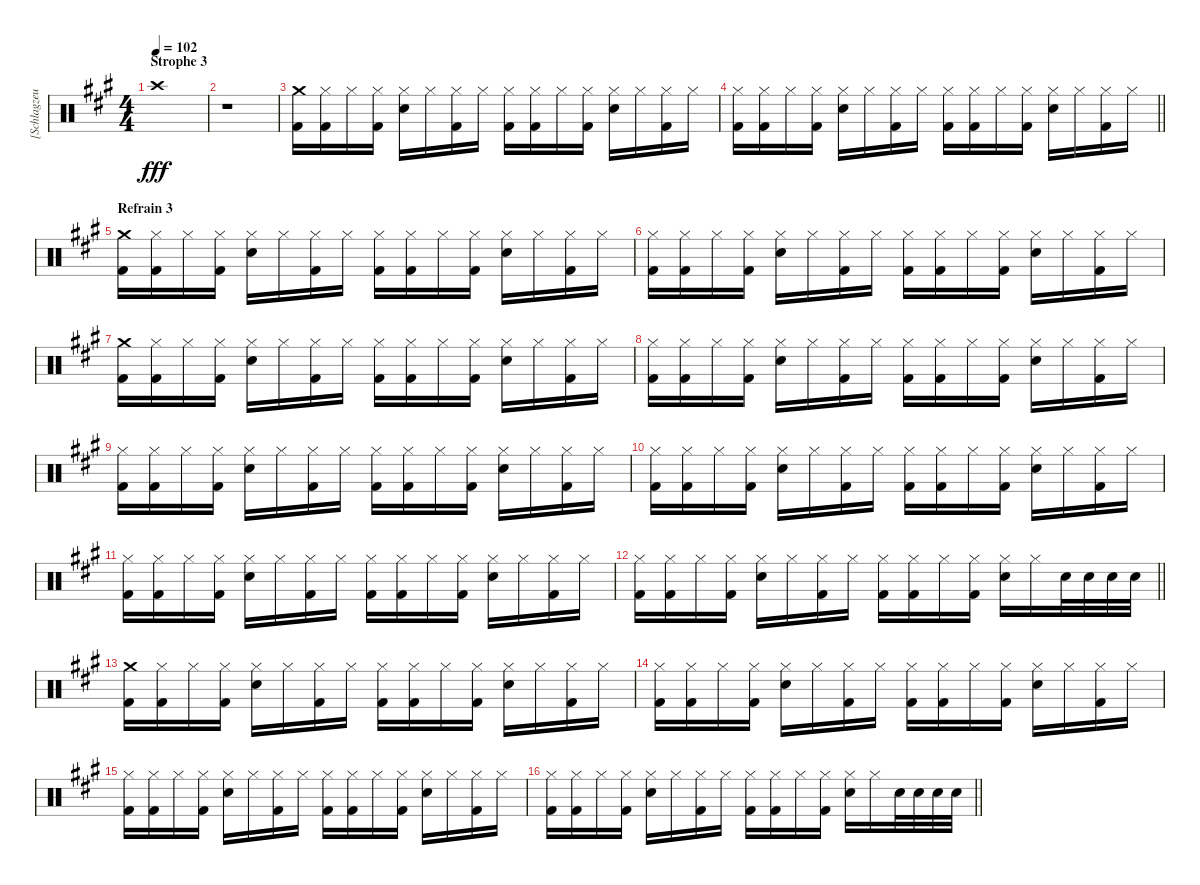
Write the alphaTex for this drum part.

\track ("[Schlagzeug]" "[Schlagzeu") {instrument percussion}
\staff {score}
\articulation defaults
\ts (4 4)
\section ("" "Strophe 3")
\tempo 102
\clef neutral
\ks f#minor "Crash high (hit)".1{dy fff}
|
r.1 |
("Kick (hit) 2" "Crash medium (hit)").16 ("Kick (hit) 2" "Hi-Hat (closed)").16 "Hi-Hat (closed)".16 ("Kick (hit) 2" "Hi-Hat (closed)").16 ("Electric Snare (hit)" "Hi-Hat (closed)").16 "Hi-Hat (closed)".16 ("Kick (hit) 2" "Hi-Hat (closed)").16 "Hi-Hat (closed)".16 ("Kick (hit) 2" "Hi-Hat (closed)").16 ("Kick (hit) 2" "Hi-Hat (closed)").16 "Hi-Hat (closed)".16 ("Kick (hit) 2" "Hi-Hat (closed)").16 ("Electric Snare (hit)" "Hi-Hat (closed)").16 "Hi-Hat (closed)".16 ("Kick (hit) 2" "Hi-Hat (closed)").16 "Hi-Hat (closed)".16 |
\barLineRight lightlight
("Kick (hit) 2" "Hi-Hat (closed)").16 ("Kick (hit) 2" "Hi-Hat (closed)").16 "Hi-Hat (closed)".16 ("Kick (hit) 2" "Hi-Hat (closed)").16 ("Electric Snare (hit)" "Hi-Hat (closed)").16 "Hi-Hat (closed)".16 ("Kick (hit) 2" "Hi-Hat (closed)").16 "Hi-Hat (closed)".16 ("Kick (hit) 2" "Hi-Hat (closed)").16 ("Kick (hit) 2" "Hi-Hat (closed)").16 "Hi-Hat (closed)".16 ("Kick (hit) 2" "Hi-Hat (closed)").16 ("Electric Snare (hit)" "Hi-Hat (closed)").16 "Hi-Hat (closed)".16 ("Kick (hit) 2" "Hi-Hat (closed)").16 "Hi-Hat (closed)".16 |
\section ("" "Refrain 3")
("Kick (hit) 2" "Crash medium (hit)").16 ("Kick (hit) 2" "Hi-Hat (closed)").16 "Hi-Hat (closed)".16 ("Kick (hit) 2" "Hi-Hat (closed)").16 ("Electric Snare (hit)" "Hi-Hat (closed)").16 "Hi-Hat (closed)".16 ("Kick (hit) 2" "Hi-Hat (closed)").16 "Hi-Hat (closed)".16 ("Kick (hit) 2" "Hi-Hat (closed)").16 ("Kick (hit) 2" "Hi-Hat (closed)").16 "Hi-Hat (closed)".16 ("Kick (hit) 2" "Hi-Hat (closed)").16 ("Electric Snare (hit)" "Hi-Hat (closed)").16 "Hi-Hat (closed)".16 ("Kick (hit) 2" "Hi-Hat (closed)").16 "Hi-Hat (closed)".16 |
("Kick (hit) 2" "Hi-Hat (closed)").16 ("Kick (hit) 2" "Hi-Hat (closed)").16 "Hi-Hat (closed)".16 ("Kick (hit) 2" "Hi-Hat (closed)").16 ("Electric Snare (hit)" "Hi-Hat (closed)").16 "Hi-Hat (closed)".16 ("Kick (hit) 2" "Hi-Hat (closed)").16 "Hi-Hat (closed)".16 ("Kick (hit) 2" "Hi-Hat (closed)").16 ("Kick (hit) 2" "Hi-Hat (closed)").16 "Hi-Hat (closed)".16 ("Kick (hit) 2" "Hi-Hat (closed)").16 ("Electric Snare (hit)" "Hi-Hat (closed)").16 "Hi-Hat (closed)".16 ("Kick (hit) 2" "Hi-Hat (closed)").16 "Hi-Hat (closed)".16 |
("Kick (hit) 2" "Crash medium (hit)").16 ("Kick (hit) 2" "Hi-Hat (closed)").16 "Hi-Hat (closed)".16 ("Kick (hit) 2" "Hi-Hat (closed)").16 ("Electric Snare (hit)" "Hi-Hat (closed)").16 "Hi-Hat (closed)".16 ("Kick (hit) 2" "Hi-Hat (closed)").16 "Hi-Hat (closed)".16 ("Kick (hit) 2" "Hi-Hat (closed)").16 ("Kick (hit) 2" "Hi-Hat (closed)").16 "Hi-Hat (closed)".16 ("Kick (hit) 2" "Hi-Hat (closed)").16 ("Electric Snare (hit)" "Hi-Hat (closed)").16 "Hi-Hat (closed)".16 ("Kick (hit) 2" "Hi-Hat (closed)").16 "Hi-Hat (closed)".16 |
("Kick (hit) 2" "Hi-Hat (closed)").16 ("Kick (hit) 2" "Hi-Hat (closed)").16 "Hi-Hat (closed)".16 ("Kick (hit) 2" "Hi-Hat (closed)").16 ("Electric Snare (hit)" "Hi-Hat (closed)").16 "Hi-Hat (closed)".16 ("Kick (hit) 2" "Hi-Hat (closed)").16 "Hi-Hat (closed)".16 ("Kick (hit) 2" "Hi-Hat (closed)").16 ("Kick (hit) 2" "Hi-Hat (closed)").16 "Hi-Hat (closed)".16 ("Kick (hit) 2" "Hi-Hat (closed)").16 ("Electric Snare (hit)" "Hi-Hat (closed)").16 "Hi-Hat (closed)".16 ("Kick (hit) 2" "Hi-Hat (closed)").16 "Hi-Hat (closed)".16 |
("Kick (hit) 2" "Hi-Hat (closed)").16 ("Kick (hit) 2" "Hi-Hat (closed)").16 "Hi-Hat (closed)".16 ("Kick (hit) 2" "Hi-Hat (closed)").16 ("Electric Snare (hit)" "Hi-Hat (closed)").16 "Hi-Hat (closed)".16 ("Kick (hit) 2" "Hi-Hat (closed)").16 "Hi-Hat (closed)".16 ("Kick (hit) 2" "Hi-Hat (closed)").16 ("Kick (hit) 2" "Hi-Hat (closed)").16 "Hi-Hat (closed)".16 ("Kick (hit) 2" "Hi-Hat (closed)").16 ("Electric Snare (hit)" "Hi-Hat (closed)").16 "Hi-Hat (closed)".16 ("Kick (hit) 2" "Hi-Hat (closed)").16 "Hi-Hat (closed)".16 |
("Kick (hit) 2" "Hi-Hat (closed)").16 ("Kick (hit) 2" "Hi-Hat (closed)").16 "Hi-Hat (closed)".16 ("Kick (hit) 2" "Hi-Hat (closed)").16 ("Electric Snare (hit)" "Hi-Hat (closed)").16 "Hi-Hat (closed)".16 ("Kick (hit) 2" "Hi-Hat (closed)").16 "Hi-Hat (closed)".16 ("Kick (hit) 2" "Hi-Hat (closed)").16 ("Kick (hit) 2" "Hi-Hat (closed)").16 "Hi-Hat (closed)".16 ("Kick (hit) 2" "Hi-Hat (closed)").16 ("Electric Snare (hit)" "Hi-Hat (closed)").16 "Hi-Hat (closed)".16 ("Kick (hit) 2" "Hi-Hat (closed)").16 "Hi-Hat (closed)".16 |
("Kick (hit) 2" "Hi-Hat (closed)").16 ("Kick (hit) 2" "Hi-Hat (closed)").16 "Hi-Hat (closed)".16 ("Kick (hit) 2" "Hi-Hat (closed)").16 ("Electric Snare (hit)" "Hi-Hat (closed)").16 "Hi-Hat (closed)".16 ("Kick (hit) 2" "Hi-Hat (closed)").16 "Hi-Hat (closed)".16 ("Kick (hit) 2" "Hi-Hat (closed)").16 ("Kick (hit) 2" "Hi-Hat (closed)").16 "Hi-Hat (closed)".16 ("Kick (hit) 2" "Hi-Hat (closed)").16 ("Electric Snare (hit)" "Hi-Hat (closed)").16 "Hi-Hat (closed)".16 ("Kick (hit) 2" "Hi-Hat (closed)").16 "Hi-Hat (closed)".16 |
\barLineRight lightlight
("Kick (hit) 2" "Hi-Hat (closed)").16 ("Kick (hit) 2" "Hi-Hat (closed)").16 "Hi-Hat (closed)".16 ("Kick (hit) 2" "Hi-Hat (closed)").16 ("Electric Snare (hit)" "Hi-Hat (closed)").16 "Hi-Hat (closed)".16 ("Kick (hit) 2" "Hi-Hat (closed)").16 "Hi-Hat (closed)".16 ("Kick (hit) 2" "Hi-Hat (closed)").16 ("Kick (hit) 2" "Hi-Hat (closed)").16 "Hi-Hat (closed)".16 ("Kick (hit) 2" "Hi-Hat (closed)").16 ("Electric Snare (hit)" "Hi-Hat (closed)").16 "Hi-Hat (closed)".16 "Electric Snare (hit)".32 "Electric Snare (hit)".32 "Electric Snare (hit)".32 "Electric Snare (hit)".32 |
("Kick (hit) 2" "Crash medium (hit)").16 ("Kick (hit) 2" "Hi-Hat (closed)").16 "Hi-Hat (closed)".16 ("Kick (hit) 2" "Hi-Hat (closed)").16 ("Electric Snare (hit)" "Hi-Hat (closed)").16 "Hi-Hat (closed)".16 ("Kick (hit) 2" "Hi-Hat (closed)").16 "Hi-Hat (closed)".16 ("Kick (hit) 2" "Hi-Hat (closed)").16 ("Kick (hit) 2" "Hi-Hat (closed)").16 "Hi-Hat (closed)".16 ("Kick (hit) 2" "Hi-Hat (closed)").16 ("Electric Snare (hit)" "Hi-Hat (closed)").16 "Hi-Hat (closed)".16 ("Kick (hit) 2" "Hi-Hat (closed)").16 "Hi-Hat (closed)".16 |
("Kick (hit) 2" "Hi-Hat (closed)").16 ("Kick (hit) 2" "Hi-Hat (closed)").16 "Hi-Hat (closed)".16 ("Kick (hit) 2" "Hi-Hat (closed)").16 ("Electric Snare (hit)" "Hi-Hat (closed)").16 "Hi-Hat (closed)".16 ("Kick (hit) 2" "Hi-Hat (closed)").16 "Hi-Hat (closed)".16 ("Kick (hit) 2" "Hi-Hat (closed)").16 ("Kick (hit) 2" "Hi-Hat (closed)").16 "Hi-Hat (closed)".16 ("Kick (hit) 2" "Hi-Hat (closed)").16 ("Electric Snare (hit)" "Hi-Hat (closed)").16 "Hi-Hat (closed)".16 ("Kick (hit) 2" "Hi-Hat (closed)").16 "Hi-Hat (closed)".16 |
("Kick (hit) 2" "Hi-Hat (closed)").16 ("Kick (hit) 2" "Hi-Hat (closed)").16 "Hi-Hat (closed)".16 ("Kick (hit) 2" "Hi-Hat (closed)").16 ("Electric Snare (hit)" "Hi-Hat (closed)").16 "Hi-Hat (closed)".16 ("Kick (hit) 2" "Hi-Hat (closed)").16 "Hi-Hat (closed)".16 ("Kick (hit) 2" "Hi-Hat (closed)").16 ("Kick (hit) 2" "Hi-Hat (closed)").16 "Hi-Hat (closed)".16 ("Kick (hit) 2" "Hi-Hat (closed)").16 ("Electric Snare (hit)" "Hi-Hat (closed)").16 "Hi-Hat (closed)".16 ("Kick (hit) 2" "Hi-Hat (closed)").16 "Hi-Hat (closed)".16 |
\barLineRight lightlight
("Kick (hit) 2" "Hi-Hat (closed)").16 ("Kick (hit) 2" "Hi-Hat (closed)").16 "Hi-Hat (closed)".16 ("Kick (hit) 2" "Hi-Hat (closed)").16 ("Electric Snare (hit)" "Hi-Hat (closed)").16 "Hi-Hat (closed)".16 ("Kick (hit) 2" "Hi-Hat (closed)").16 "Hi-Hat (closed)".16 ("Kick (hit) 2" "Hi-Hat (closed)").16 ("Kick (hit) 2" "Hi-Hat (closed)").16 "Hi-Hat (closed)".16 ("Kick (hit) 2" "Hi-Hat (closed)").16 ("Electric Snare (hit)" "Hi-Hat (closed)").16 "Hi-Hat (closed)".16 "Electric Snare (hit)".32 "Electric Snare (hit)".32 "Electric Snare (hit)".32 "Electric Snare (hit)".32
